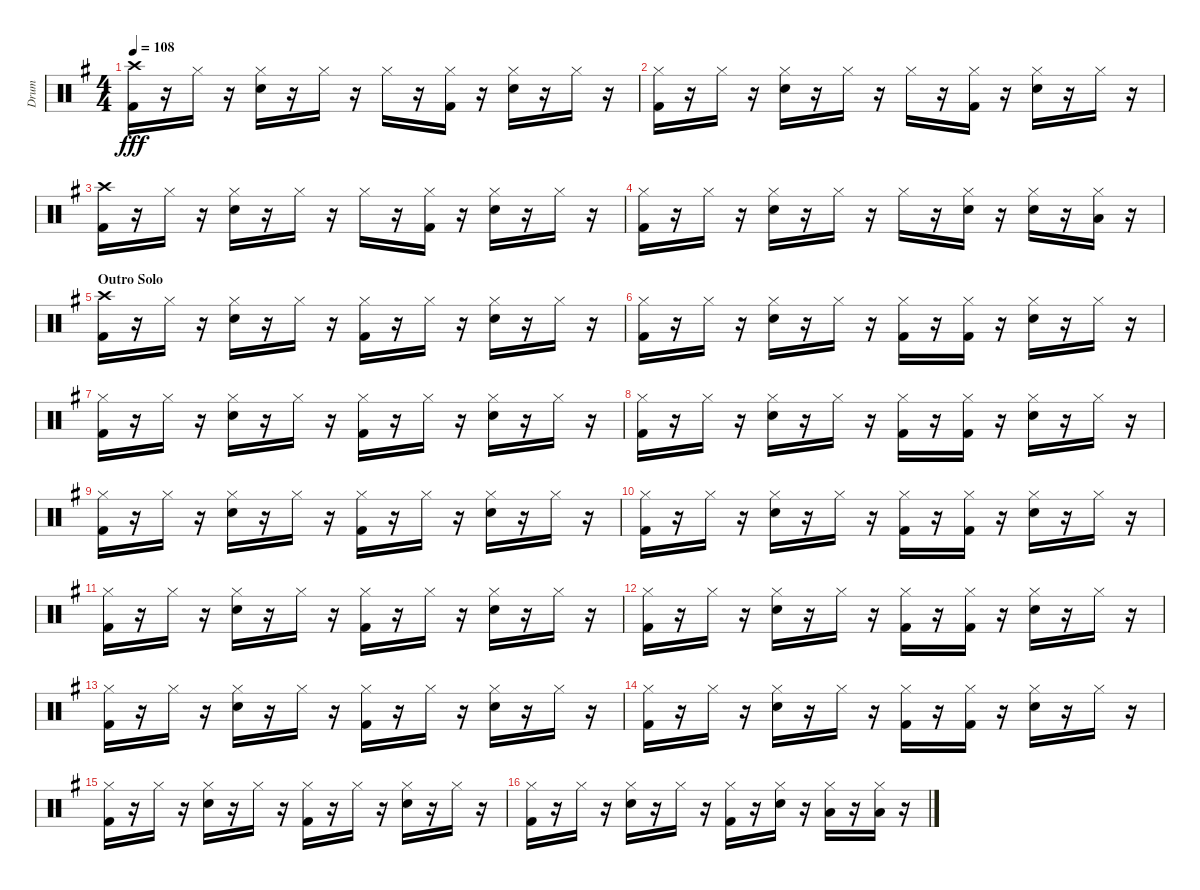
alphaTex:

\track ("Drum" "Drum") {instrument percussion}
\staff {score}
\articulation defaults
\ts (4 4)
\tempo 108
\clef neutral
\ks g
("Crash high (hit)" "Kick (hit) 2").16{dy fff} r.16 "Hi-Hat (closed)".16 r.16 ("Hi-Hat (closed)" "Electric Snare (hit)").16 r.16 "Hi-Hat (closed)".16 r.16 "Hi-Hat (closed)".16 r.16 ("Hi-Hat (closed)" "Kick (hit) 2").16 r.16 ("Hi-Hat (closed)" "Electric Snare (hit)").16 r.16 "Hi-Hat (closed)".16 r.16 |
("Hi-Hat (closed)" "Kick (hit) 2").16 r.16 "Hi-Hat (closed)".16 r.16 ("Hi-Hat (closed)" "Electric Snare (hit)").16 r.16 "Hi-Hat (closed)".16 r.16 "Hi-Hat (closed)".16 r.16 ("Hi-Hat (closed)" "Kick (hit) 2").16 r.16 ("Hi-Hat (closed)" "Electric Snare (hit)").16 r.16 "Hi-Hat (closed)".16 r.16 |
("Crash high (hit)" "Kick (hit) 2").16 r.16 "Hi-Hat (closed)".16 r.16 ("Hi-Hat (closed)" "Electric Snare (hit)").16 r.16 "Hi-Hat (closed)".16 r.16 "Hi-Hat (closed)".16 r.16 ("Hi-Hat (closed)" "Kick (hit) 2").16 r.16 ("Hi-Hat (closed)" "Electric Snare (hit)").16 r.16 "Hi-Hat (closed)".16 r.16 |
("Hi-Hat (closed)" "Kick (hit) 2").16 r.16 "Hi-Hat (closed)".16 r.16 ("Hi-Hat (closed)" "Electric Snare (hit)").16 r.16 "Hi-Hat (closed)".16 r.16 "Hi-Hat (closed)".16 r.16 ("Hi-Hat (closed)" "Electric Snare (hit)").16 r.16 ("Hi-Hat (closed)" "Electric Snare (hit)").16 r.16 ("Hi-Hat (closed)" "Low Tom (hit)").16 r.16 |
\section ("" "Outro Solo")
("Crash high (hit)" "Kick (hit) 2").16 r.16 "Hi-Hat (closed)".16 r.16 ("Hi-Hat (closed)" "Electric Snare (hit)").16 r.16 "Hi-Hat (closed)".16 r.16 ("Hi-Hat (closed)" "Kick (hit) 2").16 r.16 "Hi-Hat (closed)".16 r.16 ("Hi-Hat (closed)" "Electric Snare (hit)").16 r.16 "Hi-Hat (closed)".16 r.16 |
("Hi-Hat (closed)" "Kick (hit) 2").16 r.16 "Hi-Hat (closed)".16 r.16 ("Hi-Hat (closed)" "Electric Snare (hit)").16 r.16 "Hi-Hat (closed)".16 r.16 ("Hi-Hat (closed)" "Kick (hit) 2").16 r.16 ("Hi-Hat (closed)" "Kick (hit) 2").16 r.16 ("Hi-Hat (closed)" "Electric Snare (hit)").16 r.16 "Hi-Hat (closed)".16 r.16 |
("Hi-Hat (closed)" "Kick (hit) 2").16 r.16 "Hi-Hat (closed)".16 r.16 ("Hi-Hat (closed)" "Electric Snare (hit)").16 r.16 "Hi-Hat (closed)".16 r.16 ("Hi-Hat (closed)" "Kick (hit) 2").16 r.16 "Hi-Hat (closed)".16 r.16 ("Hi-Hat (closed)" "Electric Snare (hit)").16 r.16 "Hi-Hat (closed)".16 r.16 |
("Hi-Hat (closed)" "Kick (hit) 2").16 r.16 "Hi-Hat (closed)".16 r.16 ("Hi-Hat (closed)" "Electric Snare (hit)").16 r.16 "Hi-Hat (closed)".16 r.16 ("Hi-Hat (closed)" "Kick (hit) 2").16 r.16 ("Hi-Hat (closed)" "Kick (hit) 2").16 r.16 ("Hi-Hat (closed)" "Electric Snare (hit)").16 r.16 "Hi-Hat (closed)".16 r.16 |
("Hi-Hat (closed)" "Kick (hit) 2").16 r.16 "Hi-Hat (closed)".16 r.16 ("Hi-Hat (closed)" "Electric Snare (hit)").16 r.16 "Hi-Hat (closed)".16 r.16 ("Hi-Hat (closed)" "Kick (hit) 2").16 r.16 "Hi-Hat (closed)".16 r.16 ("Hi-Hat (closed)" "Electric Snare (hit)").16 r.16 "Hi-Hat (closed)".16 r.16 |
("Hi-Hat (closed)" "Kick (hit) 2").16 r.16 "Hi-Hat (closed)".16 r.16 ("Hi-Hat (closed)" "Electric Snare (hit)").16 r.16 "Hi-Hat (closed)".16 r.16 ("Hi-Hat (closed)" "Kick (hit) 2").16 r.16 ("Hi-Hat (closed)" "Kick (hit) 2").16 r.16 ("Hi-Hat (closed)" "Electric Snare (hit)").16 r.16 "Hi-Hat (closed)".16 r.16 |
("Hi-Hat (closed)" "Kick (hit) 2").16 r.16 "Hi-Hat (closed)".16 r.16 ("Hi-Hat (closed)" "Electric Snare (hit)").16 r.16 "Hi-Hat (closed)".16 r.16 ("Hi-Hat (closed)" "Kick (hit) 2").16 r.16 "Hi-Hat (closed)".16 r.16 ("Hi-Hat (closed)" "Electric Snare (hit)").16 r.16 "Hi-Hat (closed)".16 r.16 |
("Hi-Hat (closed)" "Kick (hit) 2").16 r.16 "Hi-Hat (closed)".16 r.16 ("Hi-Hat (closed)" "Electric Snare (hit)").16 r.16 "Hi-Hat (closed)".16 r.16 ("Hi-Hat (closed)" "Kick (hit) 2").16 r.16 ("Hi-Hat (closed)" "Kick (hit) 2").16 r.16 ("Hi-Hat (closed)" "Electric Snare (hit)").16 r.16 "Hi-Hat (closed)".16 r.16 |
("Hi-Hat (closed)" "Kick (hit) 2").16 r.16 "Hi-Hat (closed)".16 r.16 ("Hi-Hat (closed)" "Electric Snare (hit)").16 r.16 "Hi-Hat (closed)".16 r.16 ("Hi-Hat (closed)" "Kick (hit) 2").16 r.16 "Hi-Hat (closed)".16 r.16 ("Hi-Hat (closed)" "Electric Snare (hit)").16 r.16 "Hi-Hat (closed)".16 r.16 |
("Hi-Hat (closed)" "Kick (hit) 2").16 r.16 "Hi-Hat (closed)".16 r.16 ("Hi-Hat (closed)" "Electric Snare (hit)").16 r.16 "Hi-Hat (closed)".16 r.16 ("Hi-Hat (closed)" "Kick (hit) 2").16 r.16 ("Hi-Hat (closed)" "Kick (hit) 2").16 r.16 ("Hi-Hat (closed)" "Electric Snare (hit)").16 r.16 "Hi-Hat (closed)".16 r.16 |
("Hi-Hat (closed)" "Kick (hit) 2").16 r.16 "Hi-Hat (closed)".16 r.16 ("Hi-Hat (closed)" "Electric Snare (hit)").16 r.16 "Hi-Hat (closed)".16 r.16 ("Hi-Hat (closed)" "Kick (hit) 2").16 r.16 "Hi-Hat (closed)".16 r.16 ("Hi-Hat (closed)" "Electric Snare (hit)").16 r.16 "Hi-Hat (closed)".16 r.16 |
("Hi-Hat (closed)" "Kick (hit) 2").16 r.16 "Hi-Hat (closed)".16 r.16 ("Hi-Hat (closed)" "Electric Snare (hit)").16 r.16 "Hi-Hat (closed)".16 r.16 ("Hi-Hat (closed)" "Kick (hit) 2").16 r.16 ("Hi-Hat (closed)" "Electric Snare (hit)").16 r.16 ("Hi-Hat (closed)" "Low Tom (hit)").16 r.16 ("Hi-Hat (closed)" "Low Tom (hit)").16 r.16
